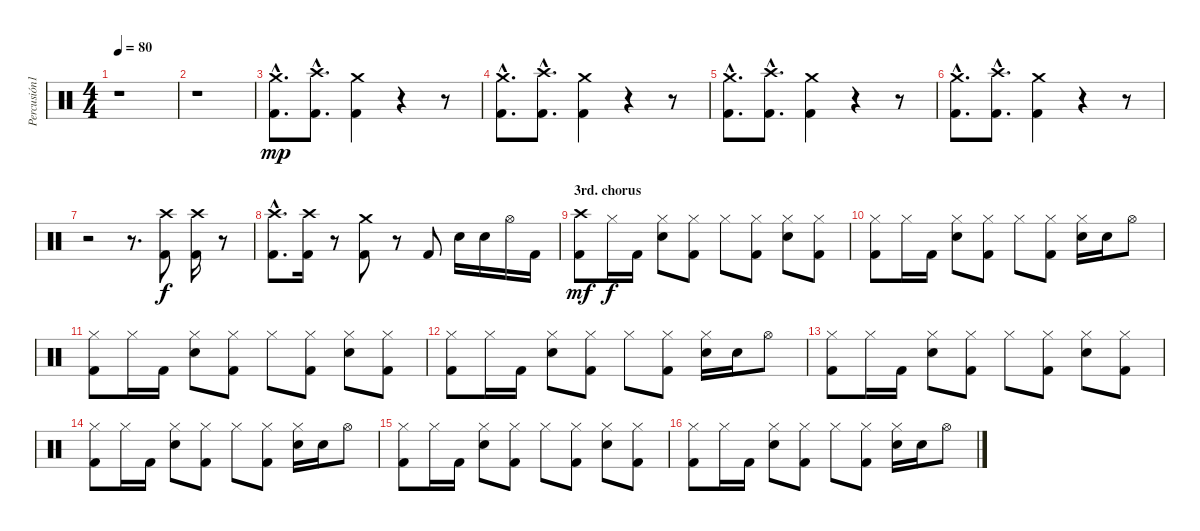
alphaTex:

\track ("Percusión1" "Percusión1") {instrument percussion}
\staff {score}
\articulation defaults
\ts (4 4)
\tempo 80
\clef neutral
\ks c
r.1{dy pp} |
r.1 |
("Crash medium (hit)"{hac} "Kick (hit) 2"{hac}).8{d dy mp} ("Crash high (hit)"{hac} "Kick (hit) 2"{hac}).8{d} ("Crash medium (hit)" "Kick (hit) 2").4 r.4 r.8 |
("Crash medium (hit)"{hac} "Kick (hit) 2"{hac}).8{d} ("Crash high (hit)"{hac} "Kick (hit) 2"{hac}).8{d} ("Crash medium (hit)" "Kick (hit) 2").4 r.4 r.8 |
("Crash medium (hit)"{hac} "Kick (hit) 2"{hac}).8{d} ("Crash high (hit)"{hac} "Kick (hit) 2"{hac}).8{d} ("Crash medium (hit)" "Kick (hit) 2").4 r.4 r.8 |
("Crash medium (hit)"{hac} "Kick (hit) 2"{hac}).8{d} ("Crash high (hit)"{hac} "Kick (hit) 2"{hac}).8{d} ("Crash medium (hit)" "Kick (hit) 2").4 r.4 r.8 |
r.2 r.8{d} ("Crash high (hit)" "Kick (hit) 2").8{dy f} ("Crash high (hit)" "Kick (hit) 2").16 r.8 |
("Crash high (hit)"{hac} "Kick (hit) 2"{hac}).8{d} ("Crash high (hit)" "Kick (hit) 2").16 r.8 ("Crash medium (hit)" "Kick (hit) 2").8 r.8 "Kick (hit) 2".8 "Electric Snare (hit)".16 "Electric Snare (hit)".16 "Hi-Hat (open)".16 "Kick (hit) 2".16 |
\section ("" "3rd. chorus")
("Crash high (hit)" "Kick (hit) 2").8{dy mf} "Hi-Hat (closed)".16{dy f} "Kick (hit) 2".16 ("Hi-Hat (closed)" "Electric Snare (hit)").8 ("Hi-Hat (closed)" "Kick (hit) 2").8 "Hi-Hat (closed)".8 ("Hi-Hat (closed)" "Kick (hit) 2").8 ("Hi-Hat (closed)" "Electric Snare (hit)").8 ("Hi-Hat (closed)" "Kick (hit) 2").8 |
("Hi-Hat (closed)" "Kick (hit) 2").8 "Hi-Hat (closed)".16 "Kick (hit) 2".16 ("Hi-Hat (closed)" "Electric Snare (hit)").8 ("Hi-Hat (closed)" "Kick (hit) 2").8 "Hi-Hat (closed)".8 ("Hi-Hat (closed)" "Kick (hit) 2").8 ("Hi-Hat (closed)" "Electric Snare (hit)").16 "Electric Snare (hit)".16 "Hi-Hat (open)".8 |
("Hi-Hat (closed)" "Kick (hit) 2").8 "Hi-Hat (closed)".16 "Kick (hit) 2".16 ("Hi-Hat (closed)" "Electric Snare (hit)").8 ("Hi-Hat (closed)" "Kick (hit) 2").8 "Hi-Hat (closed)".8 ("Hi-Hat (closed)" "Kick (hit) 2").8 ("Hi-Hat (closed)" "Electric Snare (hit)").8 ("Hi-Hat (closed)" "Kick (hit) 2").8 |
("Hi-Hat (closed)" "Kick (hit) 2").8 "Hi-Hat (closed)".16 "Kick (hit) 2".16 ("Hi-Hat (closed)" "Electric Snare (hit)").8 ("Hi-Hat (closed)" "Kick (hit) 2").8 "Hi-Hat (closed)".8 ("Hi-Hat (closed)" "Kick (hit) 2").8 ("Hi-Hat (closed)" "Electric Snare (hit)").16 "Electric Snare (hit)".16 "Hi-Hat (open)".8 |
("Hi-Hat (closed)" "Kick (hit) 2").8 "Hi-Hat (closed)".16 "Kick (hit) 2".16 ("Hi-Hat (closed)" "Electric Snare (hit)").8 ("Hi-Hat (closed)" "Kick (hit) 2").8 "Hi-Hat (closed)".8 ("Hi-Hat (closed)" "Kick (hit) 2").8 ("Hi-Hat (closed)" "Electric Snare (hit)").8 ("Hi-Hat (closed)" "Kick (hit) 2").8 |
("Hi-Hat (closed)" "Kick (hit) 2").8 "Hi-Hat (closed)".16 "Kick (hit) 2".16 ("Hi-Hat (closed)" "Electric Snare (hit)").8 ("Hi-Hat (closed)" "Kick (hit) 2").8 "Hi-Hat (closed)".8 ("Hi-Hat (closed)" "Kick (hit) 2").8 ("Hi-Hat (closed)" "Electric Snare (hit)").16 "Electric Snare (hit)".16 "Hi-Hat (open)".8 |
("Hi-Hat (closed)" "Kick (hit) 2").8 "Hi-Hat (closed)".16 "Kick (hit) 2".16 ("Hi-Hat (closed)" "Electric Snare (hit)").8 ("Hi-Hat (closed)" "Kick (hit) 2").8 "Hi-Hat (closed)".8 ("Hi-Hat (closed)" "Kick (hit) 2").8 ("Hi-Hat (closed)" "Electric Snare (hit)").8 ("Hi-Hat (closed)" "Kick (hit) 2").8 |
("Hi-Hat (closed)" "Kick (hit) 2").8 "Hi-Hat (closed)".16 "Kick (hit) 2".16 ("Hi-Hat (closed)" "Electric Snare (hit)").8 ("Hi-Hat (closed)" "Kick (hit) 2").8 "Hi-Hat (closed)".8 ("Hi-Hat (closed)" "Kick (hit) 2").8 ("Hi-Hat (closed)" "Electric Snare (hit)").16 "Electric Snare (hit)".16 "Hi-Hat (open)".8
